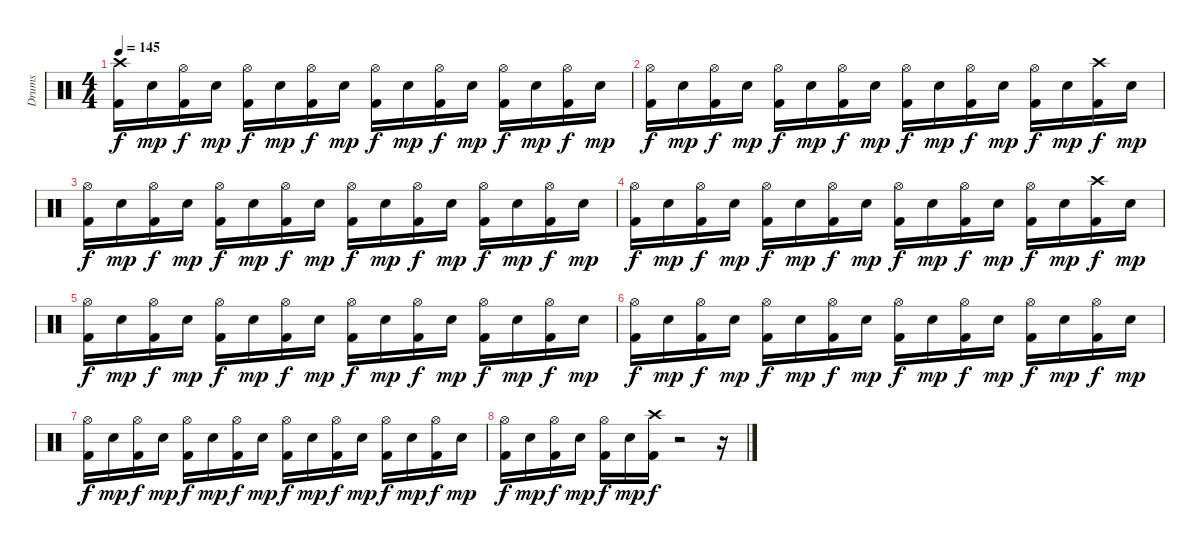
\track ("Drums" "Drums") {instrument percussion}
\staff {score}
\articulation defaults
\ts (4 4)
\tempo 145
\clef neutral
\ks c
("Crash high (hit)" "Kick (hit) 2").16{dy f} "Electric Snare (hit)".16{dy mp} ("Hi-Hat (open)" "Kick (hit) 2").16{dy f} "Electric Snare (hit)".16{dy mp} ("Hi-Hat (open)" "Kick (hit) 2").16{dy f} "Electric Snare (hit)".16{dy mp} ("Hi-Hat (open)" "Kick (hit) 2").16{dy f} "Electric Snare (hit)".16{dy mp} ("Hi-Hat (open)" "Kick (hit) 2").16{dy f} "Electric Snare (hit)".16{dy mp} ("Hi-Hat (open)" "Kick (hit) 2").16{dy f} "Electric Snare (hit)".16{dy mp} ("Hi-Hat (open)" "Kick (hit) 2").16{dy f} "Electric Snare (hit)".16{dy mp} ("Hi-Hat (open)" "Kick (hit) 2").16{dy f} "Electric Snare (hit)".16{dy mp} |
("Hi-Hat (open)" "Kick (hit) 2").16{dy f} "Electric Snare (hit)".16{dy mp} ("Hi-Hat (open)" "Kick (hit) 2").16{dy f} "Electric Snare (hit)".16{dy mp} ("Hi-Hat (open)" "Kick (hit) 2").16{dy f} "Electric Snare (hit)".16{dy mp} ("Hi-Hat (open)" "Kick (hit) 2").16{dy f} "Electric Snare (hit)".16{dy mp} ("Hi-Hat (open)" "Kick (hit) 2").16{dy f} "Electric Snare (hit)".16{dy mp} ("Hi-Hat (open)" "Kick (hit) 2").16{dy f} "Electric Snare (hit)".16{dy mp} ("Hi-Hat (open)" "Kick (hit) 2").16{dy f} "Electric Snare (hit)".16{dy mp} ("Crash high (hit)" "Kick (hit) 2").16{dy f} "Electric Snare (hit)".16{dy mp} |
("Hi-Hat (open)" "Kick (hit) 2").16{dy f} "Electric Snare (hit)".16{dy mp} ("Hi-Hat (open)" "Kick (hit) 2").16{dy f} "Electric Snare (hit)".16{dy mp} ("Hi-Hat (open)" "Kick (hit) 2").16{dy f} "Electric Snare (hit)".16{dy mp} ("Hi-Hat (open)" "Kick (hit) 2").16{dy f} "Electric Snare (hit)".16{dy mp} ("Hi-Hat (open)" "Kick (hit) 2").16{dy f} "Electric Snare (hit)".16{dy mp} ("Hi-Hat (open)" "Kick (hit) 2").16{dy f} "Electric Snare (hit)".16{dy mp} ("Hi-Hat (open)" "Kick (hit) 2").16{dy f} "Electric Snare (hit)".16{dy mp} ("Hi-Hat (open)" "Kick (hit) 2").16{dy f} "Electric Snare (hit)".16{dy mp} |
("Hi-Hat (open)" "Kick (hit) 2").16{dy f} "Electric Snare (hit)".16{dy mp} ("Hi-Hat (open)" "Kick (hit) 2").16{dy f} "Electric Snare (hit)".16{dy mp} ("Hi-Hat (open)" "Kick (hit) 2").16{dy f} "Electric Snare (hit)".16{dy mp} ("Hi-Hat (open)" "Kick (hit) 2").16{dy f} "Electric Snare (hit)".16{dy mp} ("Hi-Hat (open)" "Kick (hit) 2").16{dy f} "Electric Snare (hit)".16{dy mp} ("Hi-Hat (open)" "Kick (hit) 2").16{dy f} "Electric Snare (hit)".16{dy mp} ("Hi-Hat (open)" "Kick (hit) 2").16{dy f} "Electric Snare (hit)".16{dy mp} ("Crash high (hit)" "Kick (hit) 2").16{dy f} "Electric Snare (hit)".16{dy mp} |
("Hi-Hat (open)" "Kick (hit) 2").16{dy f} "Electric Snare (hit)".16{dy mp} ("Hi-Hat (open)" "Kick (hit) 2").16{dy f} "Electric Snare (hit)".16{dy mp} ("Hi-Hat (open)" "Kick (hit) 2").16{dy f} "Electric Snare (hit)".16{dy mp} ("Hi-Hat (open)" "Kick (hit) 2").16{dy f} "Electric Snare (hit)".16{dy mp} ("Hi-Hat (open)" "Kick (hit) 2").16{dy f} "Electric Snare (hit)".16{dy mp} ("Hi-Hat (open)" "Kick (hit) 2").16{dy f} "Electric Snare (hit)".16{dy mp} ("Hi-Hat (open)" "Kick (hit) 2").16{dy f} "Electric Snare (hit)".16{dy mp} ("Hi-Hat (open)" "Kick (hit) 2").16{dy f} "Electric Snare (hit)".16{dy mp} |
("Hi-Hat (open)" "Kick (hit) 2").16{dy f} "Electric Snare (hit)".16{dy mp} ("Hi-Hat (open)" "Kick (hit) 2").16{dy f} "Electric Snare (hit)".16{dy mp} ("Hi-Hat (open)" "Kick (hit) 2").16{dy f} "Electric Snare (hit)".16{dy mp} ("Hi-Hat (open)" "Kick (hit) 2").16{dy f} "Electric Snare (hit)".16{dy mp} ("Hi-Hat (open)" "Kick (hit) 2").16{dy f} "Electric Snare (hit)".16{dy mp} ("Hi-Hat (open)" "Kick (hit) 2").16{dy f} "Electric Snare (hit)".16{dy mp} ("Hi-Hat (open)" "Kick (hit) 2").16{dy f} "Electric Snare (hit)".16{dy mp} ("Hi-Hat (open)" "Kick (hit) 2").16{dy f} "Electric Snare (hit)".16{dy mp} |
("Hi-Hat (open)" "Kick (hit) 2").16{dy f} "Electric Snare (hit)".16{dy mp} ("Hi-Hat (open)" "Kick (hit) 2").16{dy f} "Electric Snare (hit)".16{dy mp} ("Hi-Hat (open)" "Kick (hit) 2").16{dy f} "Electric Snare (hit)".16{dy mp} ("Hi-Hat (open)" "Kick (hit) 2").16{dy f} "Electric Snare (hit)".16{dy mp} ("Hi-Hat (open)" "Kick (hit) 2").16{dy f} "Electric Snare (hit)".16{dy mp} ("Hi-Hat (open)" "Kick (hit) 2").16{dy f} "Electric Snare (hit)".16{dy mp} ("Hi-Hat (open)" "Kick (hit) 2").16{dy f} "Electric Snare (hit)".16{dy mp} ("Hi-Hat (open)" "Kick (hit) 2").16{dy f} "Electric Snare (hit)".16{dy mp} |
("Hi-Hat (open)" "Kick (hit) 2").16{dy f} "Electric Snare (hit)".16{dy mp} ("Hi-Hat (open)" "Kick (hit) 2").16{dy f} "Electric Snare (hit)".16{dy mp} ("Hi-Hat (open)" "Kick (hit) 2").16{dy f} "Electric Snare (hit)".16{dy mp} ("Crash high (hit)" "Kick (hit) 2").16{dy f} r.2 r.16
